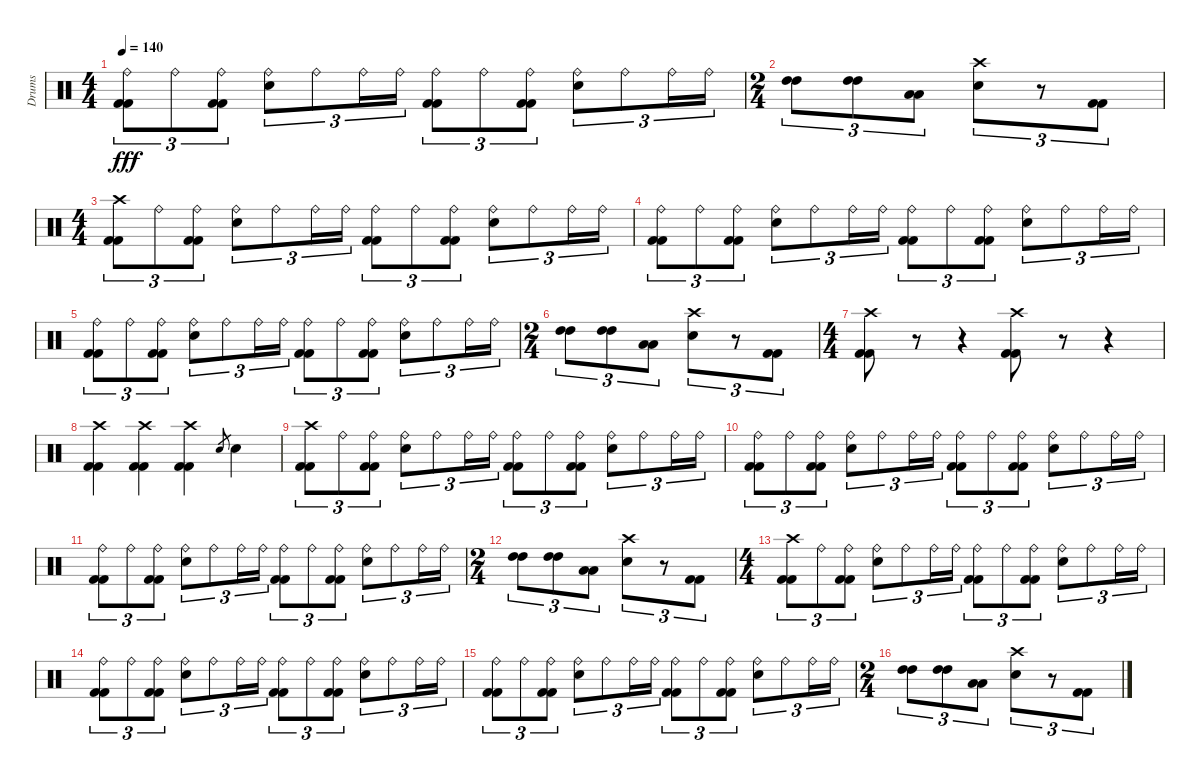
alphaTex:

\track ("Drums" "Drums") {instrument percussion}
\staff {score}
\articulation defaults
\ts (4 4)
\tempo 140
\clef neutral
\ks c
("Ride (bell)" "Kick (hit) 2" "Kick (hit) 2").8{tu (3 2) dy fff} "Ride (bell)".8{tu (3 2)} ("Ride (bell)" "Kick (hit) 2" "Kick (hit) 2").8{tu (3 2)} ("Ride (bell)" "Snare (hit) 2").8{tu (3 2)} "Ride (bell)".8{tu (3 2)} "Ride (bell)".16{tu (3 2)} "Ride (bell)".16{tu (3 2)} ("Ride (bell)" "Kick (hit) 2" "Kick (hit) 2").8{tu (3 2)} "Ride (bell)".8{tu (3 2)} ("Ride (bell)" "Kick (hit) 2" "Kick (hit) 2").8{tu (3 2)} ("Ride (bell)" "Snare (hit) 2").8{tu (3 2)} "Ride (bell)".8{tu (3 2)} "Ride (bell)".16{tu (3 2)} "Ride (bell)".16{tu (3 2)} |
\ts (2 4)
("High Tom (hit)" "High Tom (hit)").8{tu (3 2)} ("High Tom (hit)" "High Tom (hit)").8{tu (3 2)} ("Low Tom (hit)" "Low Tom (hit)").8{tu (3 2)} ("Crash high (hit)" "Snare (hit) 2").8{tu (3 2)} r.8{tu (3 2)} ("Kick (hit) 2" "Kick (hit) 2").8{tu (3 2)} |
\ts (4 4)
("Crash high (hit)" "Kick (hit) 2" "Kick (hit) 2").8{tu (3 2)} "Ride (bell)".8{tu (3 2)} ("Ride (bell)" "Kick (hit) 2" "Kick (hit) 2").8{tu (3 2)} ("Ride (bell)" "Snare (hit) 2").8{tu (3 2)} "Ride (bell)".8{tu (3 2)} "Ride (bell)".16{tu (3 2)} "Ride (bell)".16{tu (3 2)} ("Ride (bell)" "Kick (hit) 2" "Kick (hit) 2").8{tu (3 2)} "Ride (bell)".8{tu (3 2)} ("Ride (bell)" "Kick (hit) 2" "Kick (hit) 2").8{tu (3 2)} ("Ride (bell)" "Snare (hit) 2").8{tu (3 2)} "Ride (bell)".8{tu (3 2)} "Ride (bell)".16{tu (3 2)} "Ride (bell)".16{tu (3 2)} |
("Ride (bell)" "Kick (hit) 2" "Kick (hit) 2").8{tu (3 2)} "Ride (bell)".8{tu (3 2)} ("Ride (bell)" "Kick (hit) 2" "Kick (hit) 2").8{tu (3 2)} ("Ride (bell)" "Snare (hit) 2").8{tu (3 2)} "Ride (bell)".8{tu (3 2)} "Ride (bell)".16{tu (3 2)} "Ride (bell)".16{tu (3 2)} ("Ride (bell)" "Kick (hit) 2" "Kick (hit) 2").8{tu (3 2)} "Ride (bell)".8{tu (3 2)} ("Ride (bell)" "Kick (hit) 2" "Kick (hit) 2").8{tu (3 2)} ("Ride (bell)" "Snare (hit) 2").8{tu (3 2)} "Ride (bell)".8{tu (3 2)} "Ride (bell)".16{tu (3 2)} "Ride (bell)".16{tu (3 2)} |
("Ride (bell)" "Kick (hit) 2" "Kick (hit) 2").8{tu (3 2)} "Ride (bell)".8{tu (3 2)} ("Ride (bell)" "Kick (hit) 2" "Kick (hit) 2").8{tu (3 2)} ("Ride (bell)" "Snare (hit) 2").8{tu (3 2)} "Ride (bell)".8{tu (3 2)} "Ride (bell)".16{tu (3 2)} "Ride (bell)".16{tu (3 2)} ("Ride (bell)" "Kick (hit) 2" "Kick (hit) 2").8{tu (3 2)} "Ride (bell)".8{tu (3 2)} ("Ride (bell)" "Kick (hit) 2" "Kick (hit) 2").8{tu (3 2)} ("Ride (bell)" "Snare (hit) 2").8{tu (3 2)} "Ride (bell)".8{tu (3 2)} "Ride (bell)".16{tu (3 2)} "Ride (bell)".16{tu (3 2)} |
\ts (2 4)
("High Tom (hit)" "High Tom (hit)").8{tu (3 2)} ("High Tom (hit)" "High Tom (hit)").8{tu (3 2)} ("Low Tom (hit)" "Low Tom (hit)").8{tu (3 2)} ("Crash high (hit)" "Snare (hit) 2").8{tu (3 2)} r.8{tu (3 2)} ("Kick (hit) 2" "Kick (hit) 2").8{tu (3 2)} |
\ts (4 4)
("Crash high (hit)" "Kick (hit) 2" "Kick (hit) 2").8 r.8 r.4 ("Crash high (hit)" "Kick (hit) 2" "Kick (hit) 2").8 r.8 r.4 |
("Crash high (hit)" "Kick (hit) 2" "Kick (hit) 2").4 ("Crash high (hit)" "Kick (hit) 2" "Kick (hit) 2").4 ("Crash high (hit)" "Kick (hit) 2" "Kick (hit) 2").4 "Snare (hit) 2".8{gr} "Snare (hit) 2".4 |
("Crash high (hit)" "Kick (hit) 2" "Kick (hit) 2").8{tu (3 2)} "Ride (bell)".8{tu (3 2)} ("Ride (bell)" "Kick (hit) 2" "Kick (hit) 2").8{tu (3 2)} ("Ride (bell)" "Snare (hit) 2").8{tu (3 2)} "Ride (bell)".8{tu (3 2)} "Ride (bell)".16{tu (3 2)} "Ride (bell)".16{tu (3 2)} ("Ride (bell)" "Kick (hit) 2" "Kick (hit) 2").8{tu (3 2)} "Ride (bell)".8{tu (3 2)} ("Ride (bell)" "Kick (hit) 2" "Kick (hit) 2").8{tu (3 2)} ("Ride (bell)" "Snare (hit) 2").8{tu (3 2)} "Ride (bell)".8{tu (3 2)} "Ride (bell)".16{tu (3 2)} "Ride (bell)".16{tu (3 2)} |
("Ride (bell)" "Kick (hit) 2" "Kick (hit) 2").8{tu (3 2)} "Ride (bell)".8{tu (3 2)} ("Ride (bell)" "Kick (hit) 2" "Kick (hit) 2").8{tu (3 2)} ("Ride (bell)" "Snare (hit) 2").8{tu (3 2)} "Ride (bell)".8{tu (3 2)} "Ride (bell)".16{tu (3 2)} "Ride (bell)".16{tu (3 2)} ("Ride (bell)" "Kick (hit) 2" "Kick (hit) 2").8{tu (3 2)} "Ride (bell)".8{tu (3 2)} ("Ride (bell)" "Kick (hit) 2" "Kick (hit) 2").8{tu (3 2)} ("Ride (bell)" "Snare (hit) 2").8{tu (3 2)} "Ride (bell)".8{tu (3 2)} "Ride (bell)".16{tu (3 2)} "Ride (bell)".16{tu (3 2)} |
("Ride (bell)" "Kick (hit) 2" "Kick (hit) 2").8{tu (3 2)} "Ride (bell)".8{tu (3 2)} ("Ride (bell)" "Kick (hit) 2" "Kick (hit) 2").8{tu (3 2)} ("Ride (bell)" "Snare (hit) 2").8{tu (3 2)} "Ride (bell)".8{tu (3 2)} "Ride (bell)".16{tu (3 2)} "Ride (bell)".16{tu (3 2)} ("Ride (bell)" "Kick (hit) 2" "Kick (hit) 2").8{tu (3 2)} "Ride (bell)".8{tu (3 2)} ("Ride (bell)" "Kick (hit) 2" "Kick (hit) 2").8{tu (3 2)} ("Ride (bell)" "Snare (hit) 2").8{tu (3 2)} "Ride (bell)".8{tu (3 2)} "Ride (bell)".16{tu (3 2)} "Ride (bell)".16{tu (3 2)} |
\ts (2 4)
("High Tom (hit)" "High Tom (hit)").8{tu (3 2)} ("High Tom (hit)" "High Tom (hit)").8{tu (3 2)} ("Low Tom (hit)" "Low Tom (hit)").8{tu (3 2)} ("Crash high (hit)" "Snare (hit) 2").8{tu (3 2)} r.8{tu (3 2)} ("Kick (hit) 2" "Kick (hit) 2").8{tu (3 2)} |
\ts (4 4)
("Crash high (hit)" "Kick (hit) 2" "Kick (hit) 2").8{tu (3 2)} "Ride (bell)".8{tu (3 2)} ("Ride (bell)" "Kick (hit) 2" "Kick (hit) 2").8{tu (3 2)} ("Ride (bell)" "Snare (hit) 2").8{tu (3 2)} "Ride (bell)".8{tu (3 2)} "Ride (bell)".16{tu (3 2)} "Ride (bell)".16{tu (3 2)} ("Ride (bell)" "Kick (hit) 2" "Kick (hit) 2").8{tu (3 2)} "Ride (bell)".8{tu (3 2)} ("Ride (bell)" "Kick (hit) 2" "Kick (hit) 2").8{tu (3 2)} ("Ride (bell)" "Snare (hit) 2").8{tu (3 2)} "Ride (bell)".8{tu (3 2)} "Ride (bell)".16{tu (3 2)} "Ride (bell)".16{tu (3 2)} |
("Ride (bell)" "Kick (hit) 2" "Kick (hit) 2").8{tu (3 2)} "Ride (bell)".8{tu (3 2)} ("Ride (bell)" "Kick (hit) 2" "Kick (hit) 2").8{tu (3 2)} ("Ride (bell)" "Snare (hit) 2").8{tu (3 2)} "Ride (bell)".8{tu (3 2)} "Ride (bell)".16{tu (3 2)} "Ride (bell)".16{tu (3 2)} ("Ride (bell)" "Kick (hit) 2" "Kick (hit) 2").8{tu (3 2)} "Ride (bell)".8{tu (3 2)} ("Ride (bell)" "Kick (hit) 2" "Kick (hit) 2").8{tu (3 2)} ("Ride (bell)" "Snare (hit) 2").8{tu (3 2)} "Ride (bell)".8{tu (3 2)} "Ride (bell)".16{tu (3 2)} "Ride (bell)".16{tu (3 2)} |
("Ride (bell)" "Kick (hit) 2" "Kick (hit) 2").8{tu (3 2)} "Ride (bell)".8{tu (3 2)} ("Ride (bell)" "Kick (hit) 2" "Kick (hit) 2").8{tu (3 2)} ("Ride (bell)" "Snare (hit) 2").8{tu (3 2)} "Ride (bell)".8{tu (3 2)} "Ride (bell)".16{tu (3 2)} "Ride (bell)".16{tu (3 2)} ("Ride (bell)" "Kick (hit) 2" "Kick (hit) 2").8{tu (3 2)} "Ride (bell)".8{tu (3 2)} ("Ride (bell)" "Kick (hit) 2" "Kick (hit) 2").8{tu (3 2)} ("Ride (bell)" "Snare (hit) 2").8{tu (3 2)} "Ride (bell)".8{tu (3 2)} "Ride (bell)".16{tu (3 2)} "Ride (bell)".16{tu (3 2)} |
\ts (2 4)
("High Tom (hit)" "High Tom (hit)").8{tu (3 2)} ("High Tom (hit)" "High Tom (hit)").8{tu (3 2)} ("Low Tom (hit)" "Low Tom (hit)").8{tu (3 2)} ("Crash high (hit)" "Snare (hit) 2").8{tu (3 2)} r.8{tu (3 2)} ("Kick (hit) 2" "Kick (hit) 2").8{tu (3 2)}
